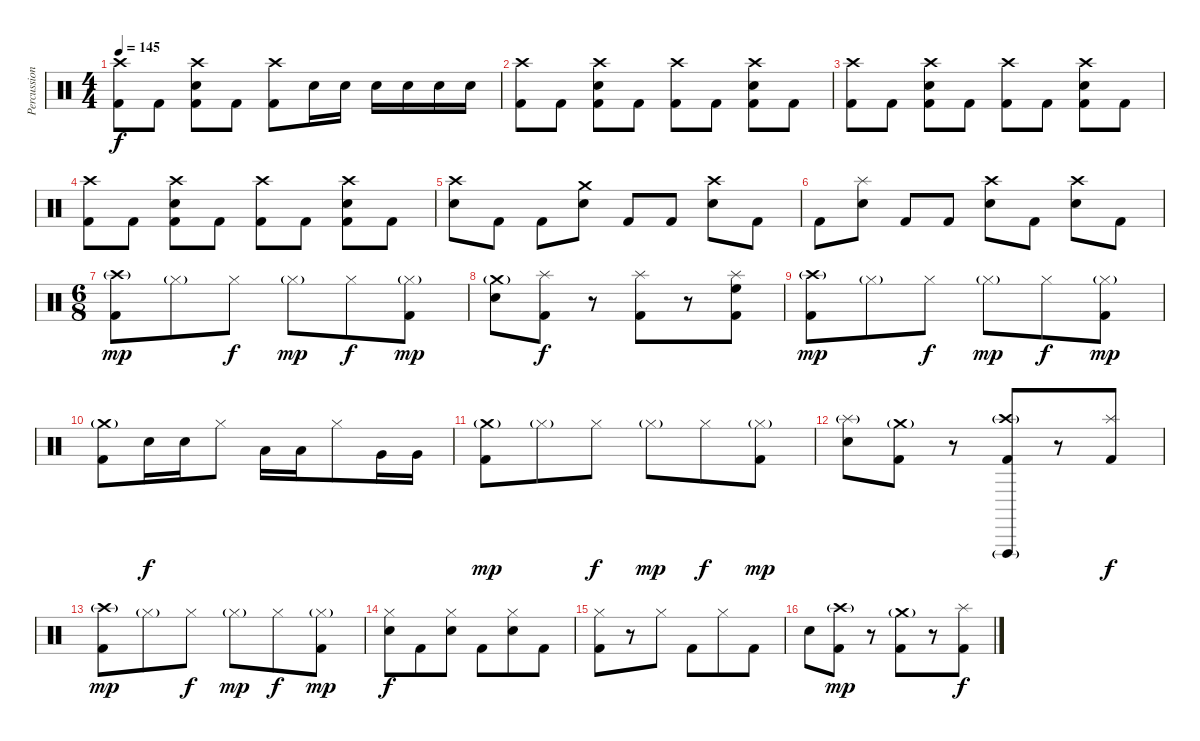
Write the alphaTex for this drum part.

\track ("Percussion" "Percussion") {instrument percussion}
\staff {score}
\articulation defaults
\ts (4 4)
\tempo 145
\clef neutral
\ks c
("Crash high (hit)" "Kick (hit) 2").8{dy f} "Kick (hit) 2".8 ("Crash high (hit)" "Electric Snare (hit)" "Kick (hit) 2").8 "Kick (hit) 2".8 ("Crash high (hit)" "Kick (hit) 2").8 "Snare (hit) 2".16 "Snare (hit) 2".16 "Snare (hit) 2".16 "Snare (hit) 2".16 "Snare (hit) 2".16 "Snare (hit) 2".16 |
("Crash high (hit)" "Kick (hit) 2").8 "Kick (hit) 2".8 ("Crash high (hit)" "Electric Snare (hit)" "Kick (hit) 2").8 "Kick (hit) 2".8 ("Crash high (hit)" "Kick (hit) 2").8 "Kick (hit) 2".8 ("Crash high (hit)" "Electric Snare (hit)" "Kick (hit) 2").8 "Kick (hit) 2".8 |
("Crash high (hit)" "Kick (hit) 2").8 "Kick (hit) 2".8 ("Crash high (hit)" "Electric Snare (hit)" "Kick (hit) 2").8 "Kick (hit) 2".8 ("Crash high (hit)" "Kick (hit) 2").8 "Kick (hit) 2".8 ("Crash high (hit)" "Electric Snare (hit)" "Kick (hit) 2").8 "Kick (hit) 2".8 |
("Crash high (hit)" "Kick (hit) 2").8 "Kick (hit) 2".8 ("Crash high (hit)" "Electric Snare (hit)" "Kick (hit) 2").8 "Kick (hit) 2".8 ("Crash high (hit)" "Kick (hit) 2").8 "Kick (hit) 2".8 ("Crash high (hit)" "Electric Snare (hit)" "Kick (hit) 2").8 "Kick (hit) 2".8 |
("Crash high (hit)" "Snare (hit) 2").8 "Kick (hit) 2".8 "Kick (hit) 2".8 ("Crash medium (hit)" "Snare (hit) 2").8 "Kick (hit) 2".8 "Kick (hit) 2".8 ("Crash high (hit)" "Snare (hit) 2").8 "Kick (hit) 2".8 |
"Kick (hit) 2".8 ("Splash (hit)" "Snare (hit) 2").8 "Kick (hit) 2".8 "Kick (hit) 2".8 ("Crash high (hit)" "Snare (hit) 2").8 "Kick (hit) 2".8 ("Crash high (hit)" "Snare (hit) 2").8 "Kick (hit) 2".8 |
\ts (6 8)
("Crash high (hit)"{g} "Kick (hit) 2").8{dy mp} "Hi-Hat (closed)"{g}.8 "Hi-Hat (closed)".8{dy f} "Hi-Hat (closed)"{g}.8{dy mp} "Hi-Hat (closed)".8{dy f} ("Hi-Hat (closed)"{g} "Kick (hit) 2").8{dy mp} |
("Crash medium (hit)"{g} "Snare (hit) 2").8 ("Splash (hit)" "Kick (hit) 2").8{dy f} r.8 ("Splash (hit)" "Kick (hit) 2").8 r.8 ("Splash (hit)" "High Floor Tom (hit)" "Kick (hit) 2").8 |
("Crash high (hit)"{g} "Kick (hit) 2").8{dy mp} "Hi-Hat (closed)"{g}.8 "Hi-Hat (closed)".8{dy f} "Hi-Hat (closed)"{g}.8{dy mp} "Hi-Hat (closed)".8{dy f} ("Hi-Hat (closed)"{g} "Kick (hit) 2").8{dy mp} |
("Crash medium (hit)"{g} "Kick (hit) 2").8 "Snare (hit) 2".16{dy f} "Snare (hit) 2".16 "Hi-Hat (closed)".8 "Low Tom (hit)".16 "Low Tom (hit)".16 "Hi-Hat (closed)".8 "Very Low Tom (hit)".16 "Very Low Tom (hit)".16 |
("Crash medium (hit)"{g} "Kick (hit) 2").8{dy mp} "Hi-Hat (closed)"{g}.8 "Hi-Hat (closed)".8{dy f} "Hi-Hat (closed)"{g}.8{dy mp} "Hi-Hat (closed)".8{dy f} ("Hi-Hat (closed)"{g} "Kick (hit) 2").8{dy mp} |
("Splash (hit)"{g} "Snare (hit) 2").8 ("Crash medium (hit)"{g} "Kick (hit) 2").8 r.8 ("Vibraslap (hit)"{g} "Crash high (hit)"{g} "Kick (hit) 2").8 r.8 ("Splash (hit)" "Kick (hit) 2").8{dy f} |
("Crash high (hit)"{g} "Kick (hit) 2").8{dy mp} "Hi-Hat (closed)"{g}.8 "Hi-Hat (closed)".8{dy f} "Hi-Hat (closed)"{g}.8{dy mp} "Hi-Hat (closed)".8{dy f} ("Hi-Hat (closed)"{g} "Kick (hit) 2").8{dy mp} |
("Hi-Hat (closed)" "Snare (hit) 2").8{dy f} "Kick (hit) 2".8 ("Hi-Hat (closed)" "Snare (hit) 2").8 "Kick (hit) 2".8 ("Hi-Hat (closed)" "Snare (hit) 2").8 "Kick (hit) 2".8 |
("Hi-Hat (closed)" "Kick (hit) 2").8 r.8 "Hi-Hat (closed)".8 "Kick (hit) 2".8 "Hi-Hat (closed)".8 "Kick (hit) 2".8 |
"Snare (hit) 2".8 ("Crash high (hit)"{g} "Kick (hit) 2").8{dy mp} r.8 ("Crash medium (hit)"{g} "Kick (hit) 2").8 r.8 ("Splash (hit)" "Kick (hit) 2").8{dy f}
